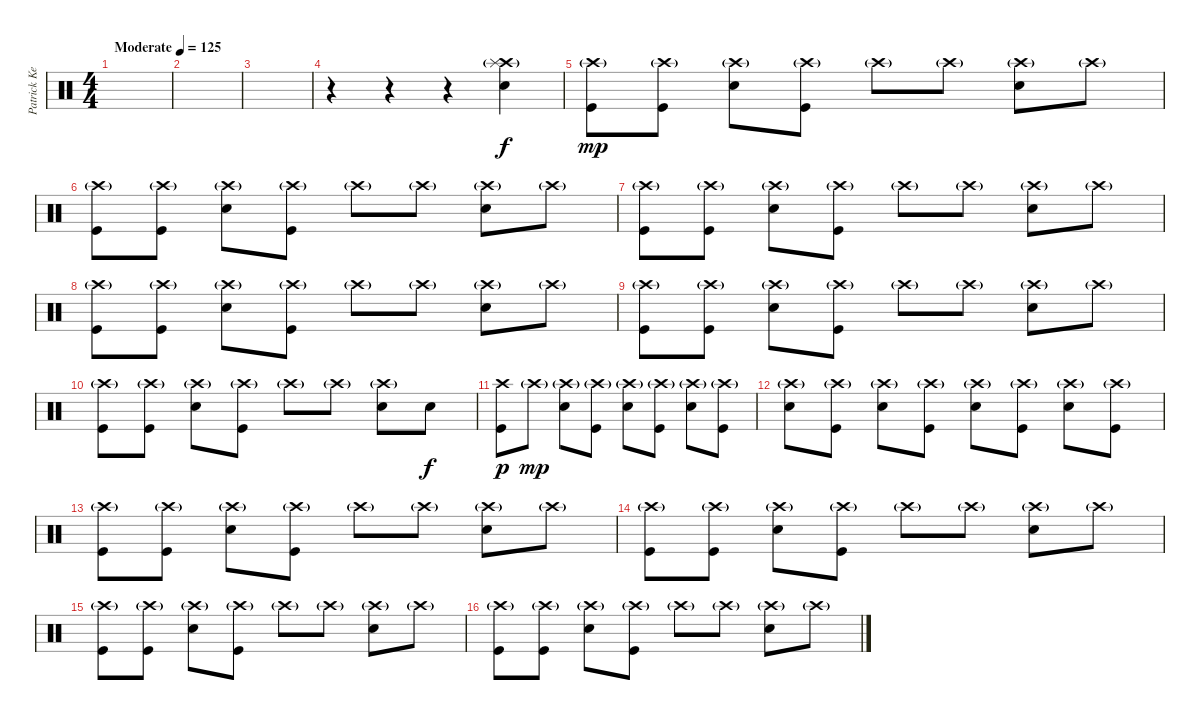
\track ("Patrick Keeler" "Patrick Ke") {instrument percussion}
\staff {score}
\articulation defaults
\ts (4 4)
\tempo (125 "Moderate")
\clef neutral
\ks c
|
|
|
r.4 r.4 r.4 ("Electric Snare (hit)" "Crash high (hit)" "Splash (hit)"{g}).4 |
("Crash high (hit)"{g} "Kick (hit)").8{dy mp} ("Crash high (hit)"{g} "Kick (hit)").8 ("Crash high (hit)"{g} "Electric Snare (hit)").8 ("Crash high (hit)"{g} "Kick (hit)").8 "Crash high (hit)"{g}.8 "Crash high (hit)"{g}.8 ("Crash high (hit)"{g} "Electric Snare (hit)").8 "Crash high (hit)"{g}.8 |
("Crash high (hit)"{g} "Kick (hit)").8 ("Crash high (hit)"{g} "Kick (hit)").8 ("Crash high (hit)"{g} "Electric Snare (hit)").8 ("Crash high (hit)"{g} "Kick (hit)").8 "Crash high (hit)"{g}.8 "Crash high (hit)"{g}.8 ("Crash high (hit)"{g} "Electric Snare (hit)").8 "Crash high (hit)"{g}.8 |
("Crash high (hit)"{g} "Kick (hit)").8 ("Crash high (hit)"{g} "Kick (hit)").8 ("Crash high (hit)"{g} "Electric Snare (hit)").8 ("Crash high (hit)"{g} "Kick (hit)").8 "Crash high (hit)"{g}.8 "Crash high (hit)"{g}.8 ("Crash high (hit)"{g} "Electric Snare (hit)").8 "Crash high (hit)"{g}.8 |
("Crash high (hit)"{g} "Kick (hit)").8 ("Crash high (hit)"{g} "Kick (hit)").8 ("Crash high (hit)"{g} "Electric Snare (hit)").8 ("Crash high (hit)"{g} "Kick (hit)").8 "Crash high (hit)"{g}.8 "Crash high (hit)"{g}.8 ("Crash high (hit)"{g} "Electric Snare (hit)").8 "Crash high (hit)"{g}.8 |
("Crash high (hit)"{g} "Kick (hit)").8 ("Crash high (hit)"{g} "Kick (hit)").8 ("Crash high (hit)"{g} "Electric Snare (hit)").8 ("Crash high (hit)"{g} "Kick (hit)").8 "Crash high (hit)"{g}.8 "Crash high (hit)"{g}.8 ("Crash high (hit)"{g} "Electric Snare (hit)").8 "Crash high (hit)"{g}.8 |
("Crash high (hit)"{g} "Kick (hit)").8 ("Crash high (hit)"{g} "Kick (hit)").8 ("Crash high (hit)"{g} "Electric Snare (hit)").8 ("Crash high (hit)"{g} "Kick (hit)").8 "Crash high (hit)"{g}.8 "Crash high (hit)"{g}.8 ("Crash high (hit)"{g} "Electric Snare (hit)").8 "Electric Snare (hit)".8{dy f} |
("Crash high (hit)" "Kick (hit)").8{dy p} "Crash high (hit)"{g}.8{dy mp} ("Crash high (hit)"{g} "Electric Snare (hit)").8 ("Crash high (hit)"{g} "Kick (hit)").8 ("Crash high (hit)"{g} "Electric Snare (hit)").8 ("Crash high (hit)"{g} "Kick (hit)").8 ("Crash high (hit)"{g} "Electric Snare (hit)").8 ("Crash high (hit)"{g} "Kick (hit)").8 |
("Crash high (hit)"{g} "Electric Snare (hit)").8 ("Crash high (hit)"{g} "Kick (hit)").8 ("Crash high (hit)"{g} "Electric Snare (hit)").8 ("Crash high (hit)"{g} "Kick (hit)").8 ("Crash high (hit)"{g} "Electric Snare (hit)").8 ("Crash high (hit)"{g} "Kick (hit)").8 ("Crash high (hit)"{g} "Electric Snare (hit)").8 ("Crash high (hit)"{g} "Kick (hit)").8 |
("Crash high (hit)"{g} "Kick (hit)").8 ("Crash high (hit)"{g} "Kick (hit)").8 ("Crash high (hit)"{g} "Electric Snare (hit)").8 ("Crash high (hit)"{g} "Kick (hit)").8 "Crash high (hit)"{g}.8 "Crash high (hit)"{g}.8 ("Crash high (hit)"{g} "Electric Snare (hit)").8 "Crash high (hit)"{g}.8 |
("Crash high (hit)"{g} "Kick (hit)").8 ("Crash high (hit)"{g} "Kick (hit)").8 ("Crash high (hit)"{g} "Electric Snare (hit)").8 ("Crash high (hit)"{g} "Kick (hit)").8 "Crash high (hit)"{g}.8 "Crash high (hit)"{g}.8 ("Crash high (hit)"{g} "Electric Snare (hit)").8 "Crash high (hit)"{g}.8 |
("Crash high (hit)"{g} "Kick (hit)").8 ("Crash high (hit)"{g} "Kick (hit)").8 ("Crash high (hit)"{g} "Electric Snare (hit)").8 ("Crash high (hit)"{g} "Kick (hit)").8 "Crash high (hit)"{g}.8 "Crash high (hit)"{g}.8 ("Crash high (hit)"{g} "Electric Snare (hit)").8 "Crash high (hit)"{g}.8 |
("Crash high (hit)"{g} "Kick (hit)").8 ("Crash high (hit)"{g} "Kick (hit)").8 ("Crash high (hit)"{g} "Electric Snare (hit)").8 ("Crash high (hit)"{g} "Kick (hit)").8 "Crash high (hit)"{g}.8 "Crash high (hit)"{g}.8 ("Crash high (hit)"{g} "Electric Snare (hit)").8 "Crash high (hit)"{g}.8
